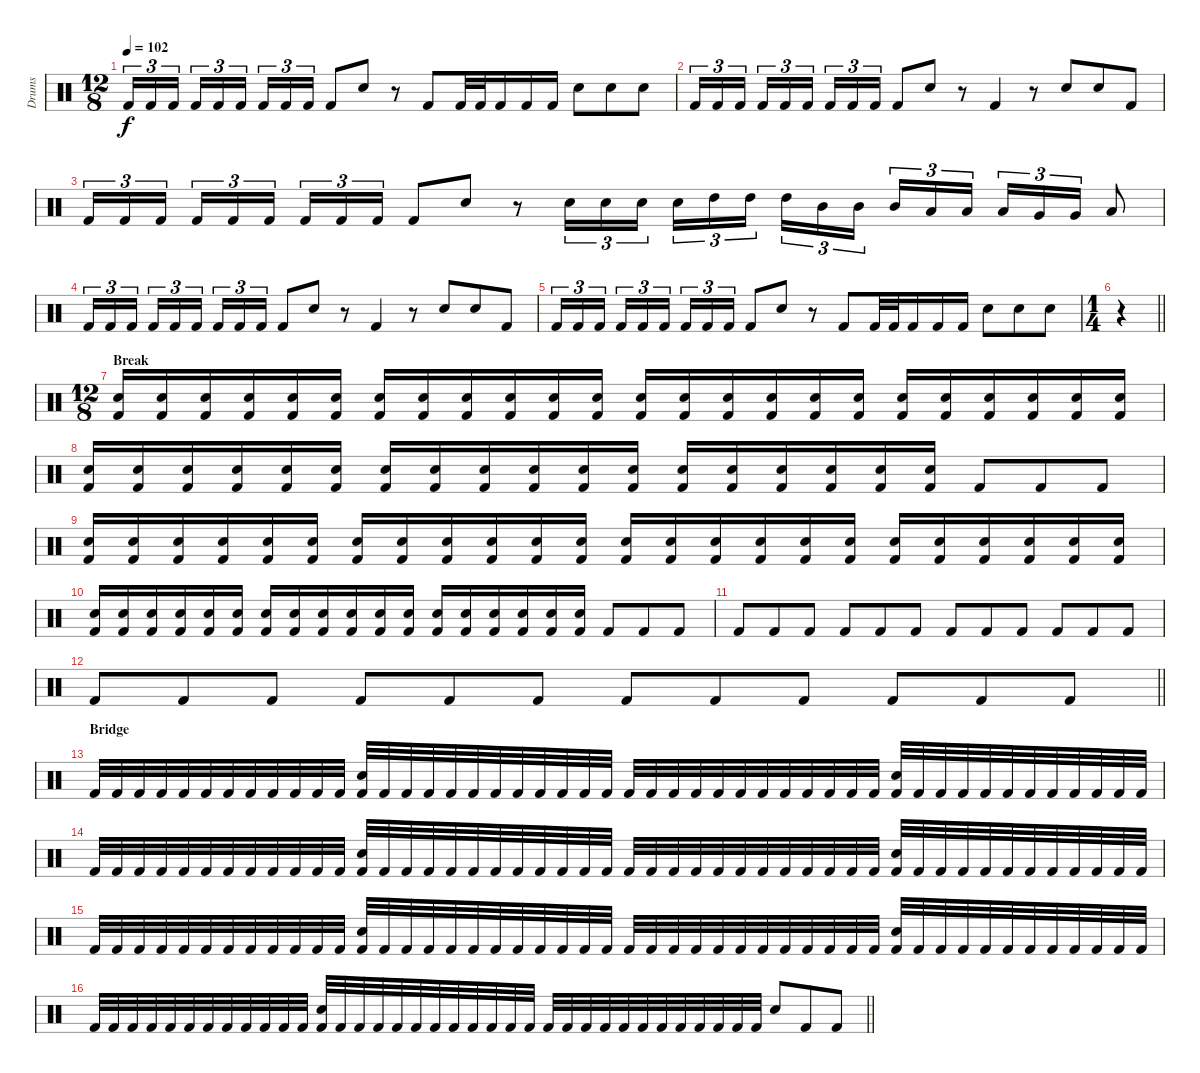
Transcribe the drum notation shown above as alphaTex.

\track ("Drums" "Drums") {instrument percussion}
\staff {score}
\articulation defaults
\ts (12 8)
\tempo 102
\clef neutral
\ks c "Kick (hit) 2".16{tu (3 2) dy f} "Kick (hit) 2".16{tu (3 2)} "Kick (hit) 2".16{tu (3 2) beam splitsecondary} "Kick (hit) 2".16{tu (3 2)} "Kick (hit) 2".16{tu (3 2)} "Kick (hit) 2".16{tu (3 2) beam splitsecondary} "Kick (hit) 2".16{tu (3 2)} "Kick (hit) 2".16{tu (3 2)} "Kick (hit) 2".16{tu (3 2)} "Kick (hit) 2".8 "Electric Snare (hit)".8
r.8 "Kick (hit) 2".8 "Kick (hit) 2".32 "Kick (hit) 2".32 "Kick (hit) 2".16 "Kick (hit) 2".16 "Kick (hit) 2".16 "Electric Snare (hit)".8 "Electric Snare (hit)".8 "Electric Snare (hit)".8 |
"Kick (hit) 2".16{tu (3 2)} "Kick (hit) 2".16{tu (3 2)} "Kick (hit) 2".16{tu (3 2) beam splitsecondary} "Kick (hit) 2".16{tu (3 2)} "Kick (hit) 2".16{tu (3 2)} "Kick (hit) 2".16{tu (3 2) beam splitsecondary} "Kick (hit) 2".16{tu (3 2)} "Kick (hit) 2".16{tu (3 2)} "Kick (hit) 2".16{tu (3 2)} "Kick (hit) 2".8 "Electric Snare (hit)".8 r.8 "Kick (hit) 2".4 r.8 "Electric Snare (hit)".8 "Electric Snare (hit)".8 "Kick (hit) 2".8 |
"Kick (hit) 2".16{tu (3 2)} "Kick (hit) 2".16{tu (3 2)} "Kick (hit) 2".16{tu (3 2) beam splitsecondary} "Kick (hit) 2".16{tu (3 2)} "Kick (hit) 2".16{tu (3 2)} "Kick (hit) 2".16{tu (3 2) beam splitsecondary} "Kick (hit) 2".16{tu (3 2)} "Kick (hit) 2".16{tu (3 2)} "Kick (hit) 2".16{tu (3 2)} "Kick (hit) 2".8 "Electric Snare (hit)".8 r.8 "Electric Snare (hit)".16{tu (3 2)} "Electric Snare (hit)".16{tu (3 2)} "Electric Snare (hit)".16{tu (3 2) beam splitsecondary} "Electric Snare (hit)".16{tu (3 2)} "High Tom (hit)".16{tu (3 2)} "High Tom (hit)".16{tu (3 2) beam splitsecondary} "High Tom (hit)".16{tu (3 2)} "Mid Tom (hit)".16{tu (3 2)} "Mid Tom (hit)".16{tu (3 2)} "Mid Tom (hit)".16{tu (3 2)} "Low Tom (hit)".16{tu (3 2)} "Low Tom (hit)".16{tu (3 2) beam splitsecondary} "Low Tom (hit)".16{tu (3 2)} "Very Low Tom (hit)".16{tu (3 2)} "Very Low Tom (hit)".16{tu (3 2)} "Low Floor Tom (hit)".8 |
"Kick (hit) 2".16{tu (3 2)} "Kick (hit) 2".16{tu (3 2)} "Kick (hit) 2".16{tu (3 2) beam splitsecondary} "Kick (hit) 2".16{tu (3 2)} "Kick (hit) 2".16{tu (3 2)} "Kick (hit) 2".16{tu (3 2) beam splitsecondary} "Kick (hit) 2".16{tu (3 2)} "Kick (hit) 2".16{tu (3 2)} "Kick (hit) 2".16{tu (3 2)} "Kick (hit) 2".8 "Electric Snare (hit)".8 r.8 "Kick (hit) 2".4 r.8 "Electric Snare (hit)".8 "Electric Snare (hit)".8 "Kick (hit) 2".8 |
"Kick (hit) 2".16{tu (3 2)} "Kick (hit) 2".16{tu (3 2)} "Kick (hit) 2".16{tu (3 2) beam splitsecondary} "Kick (hit) 2".16{tu (3 2)} "Kick (hit) 2".16{tu (3 2)} "Kick (hit) 2".16{tu (3 2) beam splitsecondary} "Kick (hit) 2".16{tu (3 2)} "Kick (hit) 2".16{tu (3 2)} "Kick (hit) 2".16{tu (3 2)} "Kick (hit) 2".8 "Electric Snare (hit)".8 r.8 "Kick (hit) 2".8 "Kick (hit) 2".32 "Kick (hit) 2".32 "Kick (hit) 2".16 "Kick (hit) 2".16 "Kick (hit) 2".16 "Electric Snare (hit)".8 "Electric Snare (hit)".8 "Electric Snare (hit)".8 |
\ts (1 4)
\barLineRight lightlight
r.4 |
\ts (12 8)
\section ("" "Break")
("Electric Snare (hit)" "Kick (hit) 2").16 ("Electric Snare (hit)" "Kick (hit) 2").16 ("Electric Snare (hit)" "Kick (hit) 2").16 ("Electric Snare (hit)" "Kick (hit) 2").16 ("Electric Snare (hit)" "Kick (hit) 2").16 ("Electric Snare (hit)" "Kick (hit) 2").16 ("Electric Snare (hit)" "Kick (hit) 2").16 ("Electric Snare (hit)" "Kick (hit) 2").16 ("Electric Snare (hit)" "Kick (hit) 2").16 ("Electric Snare (hit)" "Kick (hit) 2").16 ("Electric Snare (hit)" "Kick (hit) 2").16 ("Electric Snare (hit)" "Kick (hit) 2").16 ("Electric Snare (hit)" "Kick (hit) 2").16 ("Electric Snare (hit)" "Kick (hit) 2").16 ("Electric Snare (hit)" "Kick (hit) 2").16 ("Electric Snare (hit)" "Kick (hit) 2").16 ("Electric Snare (hit)" "Kick (hit) 2").16 ("Electric Snare (hit)" "Kick (hit) 2").16 ("Electric Snare (hit)" "Kick (hit) 2").16 ("Electric Snare (hit)" "Kick (hit) 2").16 ("Electric Snare (hit)" "Kick (hit) 2").16 ("Electric Snare (hit)" "Kick (hit) 2").16 ("Electric Snare (hit)" "Kick (hit) 2").16 ("Electric Snare (hit)" "Kick (hit) 2").16 |
("Electric Snare (hit)" "Kick (hit) 2").16 ("Electric Snare (hit)" "Kick (hit) 2").16 ("Electric Snare (hit)" "Kick (hit) 2").16 ("Electric Snare (hit)" "Kick (hit) 2").16 ("Electric Snare (hit)" "Kick (hit) 2").16 ("Electric Snare (hit)" "Kick (hit) 2").16 ("Electric Snare (hit)" "Kick (hit) 2").16 ("Electric Snare (hit)" "Kick (hit) 2").16 ("Electric Snare (hit)" "Kick (hit) 2").16 ("Electric Snare (hit)" "Kick (hit) 2").16 ("Electric Snare (hit)" "Kick (hit) 2").16 ("Electric Snare (hit)" "Kick (hit) 2").16 ("Electric Snare (hit)" "Kick (hit) 2").16 ("Electric Snare (hit)" "Kick (hit) 2").16 ("Electric Snare (hit)" "Kick (hit) 2").16 ("Electric Snare (hit)" "Kick (hit) 2").16 ("Electric Snare (hit)" "Kick (hit) 2").16 ("Electric Snare (hit)" "Kick (hit) 2").16 "Kick (hit) 2".8 "Kick (hit) 2".8 "Kick (hit) 2".8 |
("Electric Snare (hit)" "Kick (hit) 2").16 ("Electric Snare (hit)" "Kick (hit) 2").16 ("Electric Snare (hit)" "Kick (hit) 2").16 ("Electric Snare (hit)" "Kick (hit) 2").16 ("Electric Snare (hit)" "Kick (hit) 2").16 ("Electric Snare (hit)" "Kick (hit) 2").16 ("Electric Snare (hit)" "Kick (hit) 2").16 ("Electric Snare (hit)" "Kick (hit) 2").16 ("Electric Snare (hit)" "Kick (hit) 2").16 ("Electric Snare (hit)" "Kick (hit) 2").16 ("Electric Snare (hit)" "Kick (hit) 2").16 ("Electric Snare (hit)" "Kick (hit) 2").16 ("Electric Snare (hit)" "Kick (hit) 2").16 ("Electric Snare (hit)" "Kick (hit) 2").16 ("Electric Snare (hit)" "Kick (hit) 2").16 ("Electric Snare (hit)" "Kick (hit) 2").16 ("Electric Snare (hit)" "Kick (hit) 2").16 ("Electric Snare (hit)" "Kick (hit) 2").16 ("Electric Snare (hit)" "Kick (hit) 2").16 ("Electric Snare (hit)" "Kick (hit) 2").16 ("Electric Snare (hit)" "Kick (hit) 2").16 ("Electric Snare (hit)" "Kick (hit) 2").16 ("Electric Snare (hit)" "Kick (hit) 2").16 ("Electric Snare (hit)" "Kick (hit) 2").16 |
("Electric Snare (hit)" "Kick (hit) 2").16 ("Electric Snare (hit)" "Kick (hit) 2").16 ("Electric Snare (hit)" "Kick (hit) 2").16 ("Electric Snare (hit)" "Kick (hit) 2").16 ("Electric Snare (hit)" "Kick (hit) 2").16 ("Electric Snare (hit)" "Kick (hit) 2").16 ("Electric Snare (hit)" "Kick (hit) 2").16 ("Electric Snare (hit)" "Kick (hit) 2").16 ("Electric Snare (hit)" "Kick (hit) 2").16 ("Electric Snare (hit)" "Kick (hit) 2").16 ("Electric Snare (hit)" "Kick (hit) 2").16 ("Electric Snare (hit)" "Kick (hit) 2").16 ("Electric Snare (hit)" "Kick (hit) 2").16 ("Electric Snare (hit)" "Kick (hit) 2").16 ("Electric Snare (hit)" "Kick (hit) 2").16 ("Electric Snare (hit)" "Kick (hit) 2").16 ("Electric Snare (hit)" "Kick (hit) 2").16 ("Electric Snare (hit)" "Kick (hit) 2").16 "Kick (hit) 2".8 "Kick (hit) 2".8 "Kick (hit) 2".8 |
"Kick (hit) 2".8 "Kick (hit) 2".8 "Kick (hit) 2".8 "Kick (hit) 2".8 "Kick (hit) 2".8 "Kick (hit) 2".8 "Kick (hit) 2".8 "Kick (hit) 2".8 "Kick (hit) 2".8 "Kick (hit) 2".8 "Kick (hit) 2".8 "Kick (hit) 2".8 |
\barLineRight lightlight "Kick (hit) 2".8 "Kick (hit) 2".8 "Kick (hit) 2".8 "Kick (hit) 2".8 "Kick (hit) 2".8 "Kick (hit) 2".8 "Kick (hit) 2".8 "Kick (hit) 2".8 "Kick (hit) 2".8 "Kick (hit) 2".8 "Kick (hit) 2".8 "Kick (hit) 2".8
|
\section ("" "Bridge")
"Kick (hit) 2".32 "Kick (hit) 2".32 "Kick (hit) 2".32 "Kick (hit) 2".32 "Kick (hit) 2".32 "Kick (hit) 2".32 "Kick (hit) 2".32 "Kick (hit) 2".32 "Kick (hit) 2".32 "Kick (hit) 2".32 "Kick (hit) 2".32 "Kick (hit) 2".32 ("Electric Snare (hit)" "Kick (hit) 2").32 "Kick (hit) 2".32 "Kick (hit) 2".32 "Kick (hit) 2".32 "Kick (hit) 2".32 "Kick (hit) 2".32 "Kick (hit) 2".32 "Kick (hit) 2".32 "Kick (hit) 2".32 "Kick (hit) 2".32 "Kick (hit) 2".32 "Kick (hit) 2".32 "Kick (hit) 2".32 "Kick (hit) 2".32 "Kick (hit) 2".32 "Kick (hit) 2".32 "Kick (hit) 2".32 "Kick (hit) 2".32 "Kick (hit) 2".32 "Kick (hit) 2".32 "Kick (hit) 2".32 "Kick (hit) 2".32 "Kick (hit) 2".32 "Kick (hit) 2".32 ("Electric Snare (hit)" "Kick (hit) 2").32 "Kick (hit) 2".32 "Kick (hit) 2".32 "Kick (hit) 2".32 "Kick (hit) 2".32 "Kick (hit) 2".32 "Kick (hit) 2".32 "Kick (hit) 2".32 "Kick (hit) 2".32 "Kick (hit) 2".32 "Kick (hit) 2".32 "Kick (hit) 2".32 |
"Kick (hit) 2".32 "Kick (hit) 2".32 "Kick (hit) 2".32 "Kick (hit) 2".32 "Kick (hit) 2".32 "Kick (hit) 2".32 "Kick (hit) 2".32 "Kick (hit) 2".32 "Kick (hit) 2".32 "Kick (hit) 2".32 "Kick (hit) 2".32 "Kick (hit) 2".32 ("Electric Snare (hit)" "Kick (hit) 2").32 "Kick (hit) 2".32 "Kick (hit) 2".32 "Kick (hit) 2".32 "Kick (hit) 2".32 "Kick (hit) 2".32 "Kick (hit) 2".32 "Kick (hit) 2".32 "Kick (hit) 2".32 "Kick (hit) 2".32 "Kick (hit) 2".32 "Kick (hit) 2".32 "Kick (hit) 2".32 "Kick (hit) 2".32 "Kick (hit) 2".32 "Kick (hit) 2".32 "Kick (hit) 2".32 "Kick (hit) 2".32 "Kick (hit) 2".32 "Kick (hit) 2".32 "Kick (hit) 2".32 "Kick (hit) 2".32 "Kick (hit) 2".32 "Kick (hit) 2".32 ("Electric Snare (hit)" "Kick (hit) 2").32 "Kick (hit) 2".32 "Kick (hit) 2".32 "Kick (hit) 2".32 "Kick (hit) 2".32 "Kick (hit) 2".32 "Kick (hit) 2".32 "Kick (hit) 2".32 "Kick (hit) 2".32 "Kick (hit) 2".32 "Kick (hit) 2".32 "Kick (hit) 2".32 |
"Kick (hit) 2".32 "Kick (hit) 2".32 "Kick (hit) 2".32 "Kick (hit) 2".32 "Kick (hit) 2".32 "Kick (hit) 2".32 "Kick (hit) 2".32 "Kick (hit) 2".32 "Kick (hit) 2".32 "Kick (hit) 2".32 "Kick (hit) 2".32 "Kick (hit) 2".32 ("Electric Snare (hit)" "Kick (hit) 2").32 "Kick (hit) 2".32 "Kick (hit) 2".32 "Kick (hit) 2".32 "Kick (hit) 2".32 "Kick (hit) 2".32 "Kick (hit) 2".32 "Kick (hit) 2".32 "Kick (hit) 2".32 "Kick (hit) 2".32 "Kick (hit) 2".32 "Kick (hit) 2".32 "Kick (hit) 2".32 "Kick (hit) 2".32 "Kick (hit) 2".32 "Kick (hit) 2".32 "Kick (hit) 2".32 "Kick (hit) 2".32 "Kick (hit) 2".32 "Kick (hit) 2".32 "Kick (hit) 2".32 "Kick (hit) 2".32 "Kick (hit) 2".32 "Kick (hit) 2".32 ("Electric Snare (hit)" "Kick (hit) 2").32 "Kick (hit) 2".32 "Kick (hit) 2".32 "Kick (hit) 2".32 "Kick (hit) 2".32 "Kick (hit) 2".32 "Kick (hit) 2".32 "Kick (hit) 2".32 "Kick (hit) 2".32 "Kick (hit) 2".32 "Kick (hit) 2".32 "Kick (hit) 2".32 |
\barLineRight lightlight "Kick (hit) 2".32 "Kick (hit) 2".32 "Kick (hit) 2".32 "Kick (hit) 2".32 "Kick (hit) 2".32 "Kick (hit) 2".32 "Kick (hit) 2".32 "Kick (hit) 2".32 "Kick (hit) 2".32 "Kick (hit) 2".32 "Kick (hit) 2".32 "Kick (hit) 2".32
("Electric Snare (hit)" "Kick (hit) 2").32 "Kick (hit) 2".32 "Kick (hit) 2".32 "Kick (hit) 2".32 "Kick (hit) 2".32 "Kick (hit) 2".32 "Kick (hit) 2".32 "Kick (hit) 2".32 "Kick (hit) 2".32 "Kick (hit) 2".32 "Kick (hit) 2".32 "Kick (hit) 2".32 "Kick (hit) 2".32 "Kick (hit) 2".32 "Kick (hit) 2".32 "Kick (hit) 2".32 "Kick (hit) 2".32 "Kick (hit) 2".32 "Kick (hit) 2".32 "Kick (hit) 2".32 "Kick (hit) 2".32 "Kick (hit) 2".32 "Kick (hit) 2".32 "Kick (hit) 2".32 "Electric Snare (hit)".8 "Kick (hit) 2".8 "Kick (hit) 2".8
